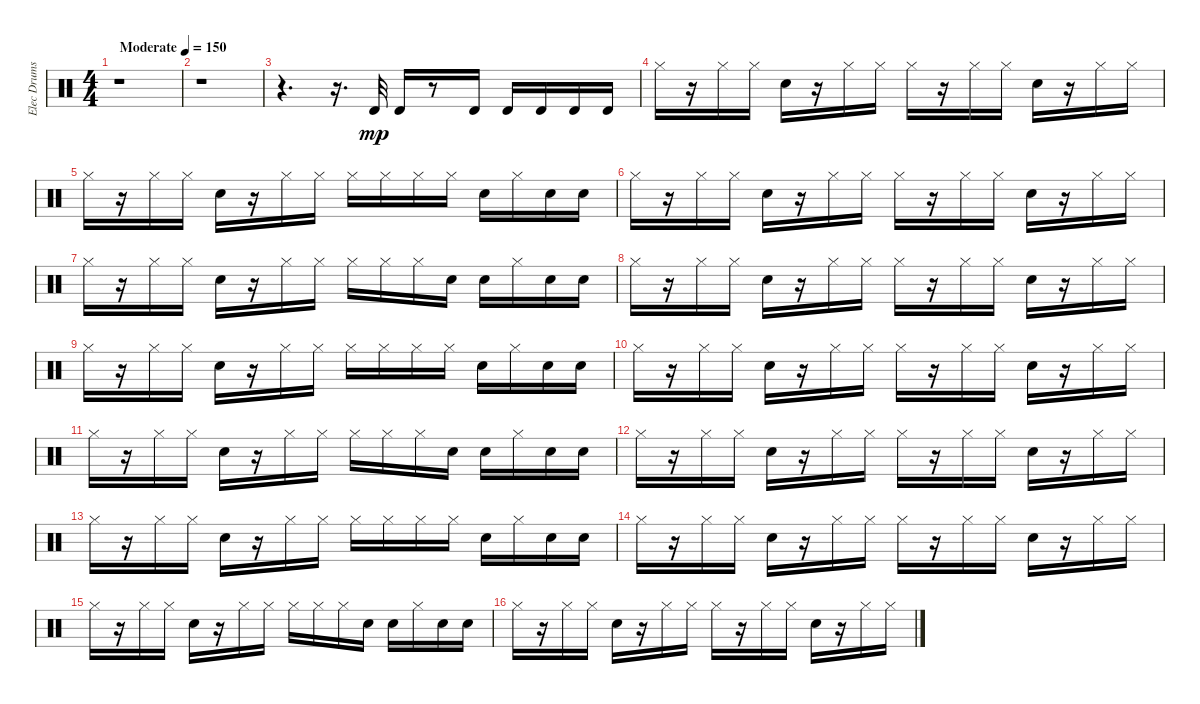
\track ("Elec Drums" "Elec Drums") {instrument percussion}
\staff {score}
\articulation defaults
\ts (4 4)
\tempo (150 "Moderate")
\clef neutral
\ks c
r.1{dy mp} |
r.1 |
r.4{d} r.16{d} "Timbale high (hit)".32 "Timbale high (hit)".16 r.8 "Timbale high (hit)".16 "Timbale high (hit)".16 "Timbale high (hit)".16 "Timbale high (hit)".16 "Timbale high (hit)".16 |
"Hi-Hat (closed)".16 r.16 "Hi-Hat (closed)".16 "Hi-Hat (closed)".16 "Electric Snare (hit)".16 r.16 "Hi-Hat (closed)".16 "Hi-Hat (closed)".16 "Hi-Hat (closed)".16 r.16 "Hi-Hat (closed)".16 "Hi-Hat (closed)".16 "Electric Snare (hit)".16 r.16 "Hi-Hat (closed)".16 "Hi-Hat (closed)".16 |
"Hi-Hat (closed)".16 r.16 "Hi-Hat (closed)".16 "Hi-Hat (closed)".16 "Electric Snare (hit)".16 r.16 "Hi-Hat (closed)".16 "Hi-Hat (closed)".16 "Hi-Hat (closed)".16 "Hi-Hat (closed)".16 "Hi-Hat (closed)".16 "Hi-Hat (closed)".16 "Electric Snare (hit)".16 "Hi-Hat (closed)".16 "Electric Snare (hit)".16 "Electric Snare (hit)".16 |
"Hi-Hat (closed)".16 r.16 "Hi-Hat (closed)".16 "Hi-Hat (closed)".16 "Electric Snare (hit)".16 r.16 "Hi-Hat (closed)".16 "Hi-Hat (closed)".16 "Hi-Hat (closed)".16 r.16 "Hi-Hat (closed)".16 "Hi-Hat (closed)".16 "Electric Snare (hit)".16 r.16 "Hi-Hat (closed)".16 "Hi-Hat (closed)".16 |
"Hi-Hat (closed)".16 r.16 "Hi-Hat (closed)".16 "Hi-Hat (closed)".16 "Electric Snare (hit)".16 r.16 "Hi-Hat (closed)".16 "Hi-Hat (closed)".16 "Hi-Hat (closed)".16 "Hi-Hat (closed)".16 "Hi-Hat (closed)".16 "Electric Snare (hit)".16 "Electric Snare (hit)".16 "Hi-Hat (closed)".16 "Electric Snare (hit)".16 "Electric Snare (hit)".16 |
"Hi-Hat (closed)".16 r.16 "Hi-Hat (closed)".16 "Hi-Hat (closed)".16 "Electric Snare (hit)".16 r.16 "Hi-Hat (closed)".16 "Hi-Hat (closed)".16 "Hi-Hat (closed)".16 r.16 "Hi-Hat (closed)".16 "Hi-Hat (closed)".16 "Electric Snare (hit)".16 r.16 "Hi-Hat (closed)".16 "Hi-Hat (closed)".16 |
"Hi-Hat (closed)".16 r.16 "Hi-Hat (closed)".16 "Hi-Hat (closed)".16 "Electric Snare (hit)".16 r.16 "Hi-Hat (closed)".16 "Hi-Hat (closed)".16 "Hi-Hat (closed)".16 "Hi-Hat (closed)".16 "Hi-Hat (closed)".16 "Hi-Hat (closed)".16 "Electric Snare (hit)".16 "Hi-Hat (closed)".16 "Electric Snare (hit)".16 "Electric Snare (hit)".16 |
"Hi-Hat (closed)".16 r.16 "Hi-Hat (closed)".16 "Hi-Hat (closed)".16 "Electric Snare (hit)".16 r.16 "Hi-Hat (closed)".16 "Hi-Hat (closed)".16 "Hi-Hat (closed)".16 r.16 "Hi-Hat (closed)".16 "Hi-Hat (closed)".16 "Electric Snare (hit)".16 r.16 "Hi-Hat (closed)".16 "Hi-Hat (closed)".16 |
"Hi-Hat (closed)".16 r.16 "Hi-Hat (closed)".16 "Hi-Hat (closed)".16 "Electric Snare (hit)".16 r.16 "Hi-Hat (closed)".16 "Hi-Hat (closed)".16 "Hi-Hat (closed)".16 "Hi-Hat (closed)".16 "Hi-Hat (closed)".16 "Electric Snare (hit)".16 "Electric Snare (hit)".16 "Hi-Hat (closed)".16 "Electric Snare (hit)".16 "Electric Snare (hit)".16 |
"Hi-Hat (closed)".16 r.16 "Hi-Hat (closed)".16 "Hi-Hat (closed)".16 "Electric Snare (hit)".16 r.16 "Hi-Hat (closed)".16 "Hi-Hat (closed)".16 "Hi-Hat (closed)".16 r.16 "Hi-Hat (closed)".16 "Hi-Hat (closed)".16 "Electric Snare (hit)".16 r.16 "Hi-Hat (closed)".16 "Hi-Hat (closed)".16 |
"Hi-Hat (closed)".16 r.16 "Hi-Hat (closed)".16 "Hi-Hat (closed)".16 "Electric Snare (hit)".16 r.16 "Hi-Hat (closed)".16 "Hi-Hat (closed)".16 "Hi-Hat (closed)".16 "Hi-Hat (closed)".16 "Hi-Hat (closed)".16 "Hi-Hat (closed)".16 "Electric Snare (hit)".16 "Hi-Hat (closed)".16 "Electric Snare (hit)".16 "Electric Snare (hit)".16 |
"Hi-Hat (closed)".16 r.16 "Hi-Hat (closed)".16 "Hi-Hat (closed)".16 "Electric Snare (hit)".16 r.16 "Hi-Hat (closed)".16 "Hi-Hat (closed)".16 "Hi-Hat (closed)".16 r.16 "Hi-Hat (closed)".16 "Hi-Hat (closed)".16 "Electric Snare (hit)".16 r.16 "Hi-Hat (closed)".16 "Hi-Hat (closed)".16 |
"Hi-Hat (closed)".16 r.16 "Hi-Hat (closed)".16 "Hi-Hat (closed)".16 "Electric Snare (hit)".16 r.16 "Hi-Hat (closed)".16 "Hi-Hat (closed)".16 "Hi-Hat (closed)".16 "Hi-Hat (closed)".16 "Hi-Hat (closed)".16 "Electric Snare (hit)".16 "Electric Snare (hit)".16 "Hi-Hat (closed)".16 "Electric Snare (hit)".16 "Electric Snare (hit)".16 |
"Hi-Hat (closed)".16 r.16 "Hi-Hat (closed)".16 "Hi-Hat (closed)".16 "Electric Snare (hit)".16 r.16 "Hi-Hat (closed)".16 "Hi-Hat (closed)".16 "Hi-Hat (closed)".16 r.16 "Hi-Hat (closed)".16 "Hi-Hat (closed)".16 "Electric Snare (hit)".16 r.16 "Hi-Hat (closed)".16 "Hi-Hat (closed)".16
